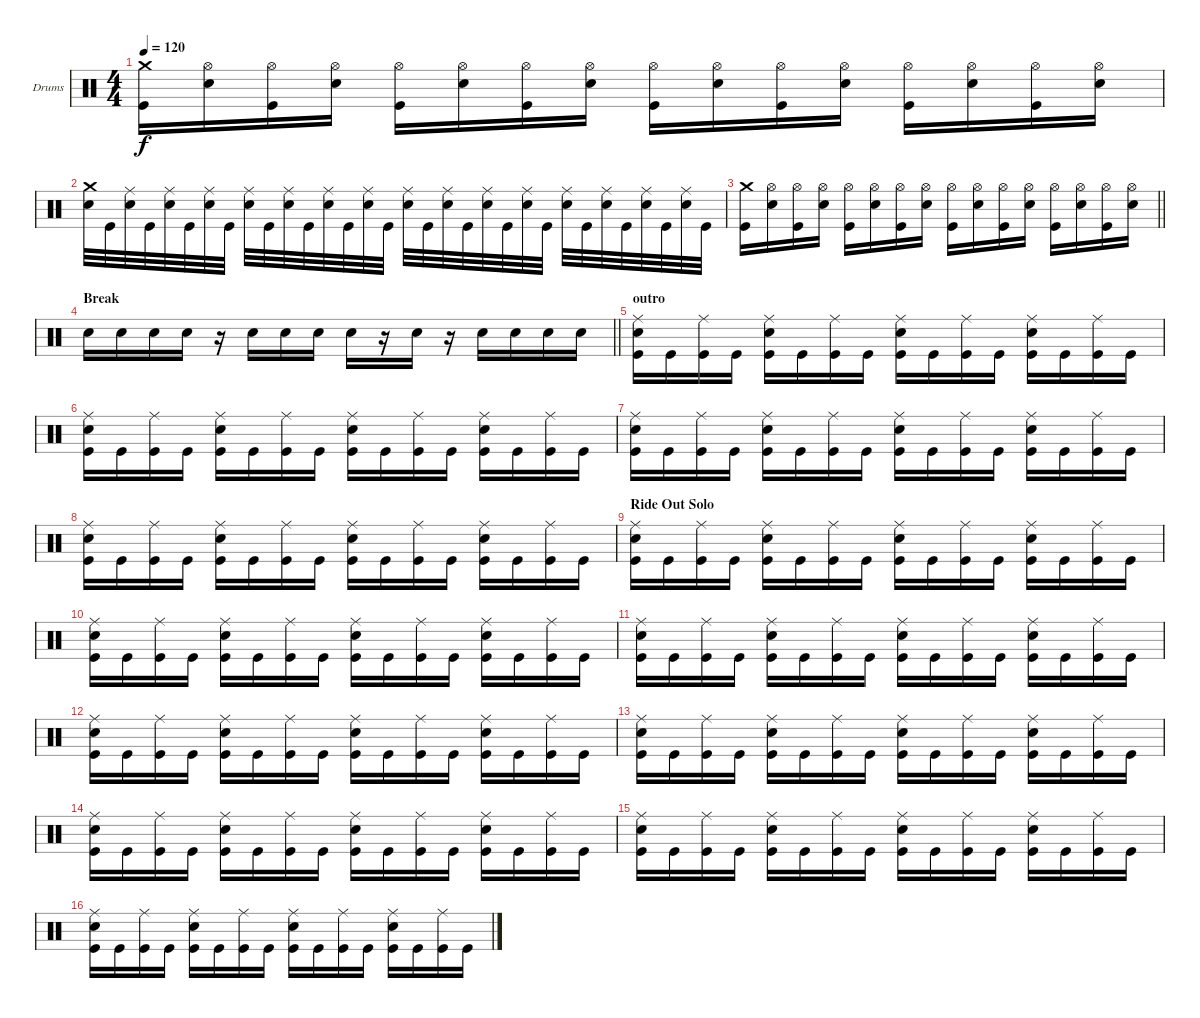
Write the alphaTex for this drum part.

\bracketExtendMode groupsimilarinstruments
\firstSystemTrackNameOrientation horizontal
\otherSystemsTrackNameOrientation horizontal
\track ("Drumkit" "Drums") {instrument percussion}
\staff {score}
\articulation defaults
\ts (4 4)
\tempo 120
\clef neutral
\ks c
("Crash medium (hit)" "Kick (hit)").16{dy f} ("Hi-Hat (open)" "Snare (hit) 2").16 ("Hi-Hat (open)" "Kick (hit)").16 ("Hi-Hat (open)" "Snare (hit) 2").16 ("Hi-Hat (open)" "Kick (hit)").16 ("Hi-Hat (open)" "Snare (hit) 2").16 ("Hi-Hat (open)" "Kick (hit)").16 ("Hi-Hat (open)" "Snare (hit) 2").16 ("Hi-Hat (open)" "Kick (hit)").16 ("Hi-Hat (open)" "Snare (hit) 2").16 ("Hi-Hat (open)" "Kick (hit)").16 ("Hi-Hat (open)" "Snare (hit) 2").16 ("Hi-Hat (open)" "Kick (hit)").16 ("Hi-Hat (open)" "Snare (hit) 2").16 ("Hi-Hat (open)" "Kick (hit)").16 ("Hi-Hat (open)" "Snare (hit) 2").16 |
("Crash medium (hit)" "Snare (hit) 2").32 "Kick (hit)".32 ("Ride (middle)" "Snare (hit) 2").32 "Kick (hit)".32 ("Ride (middle)" "Snare (hit) 2").32 "Kick (hit)".32 ("Ride (middle)" "Snare (hit) 2").32 "Kick (hit)".32 ("Ride (middle)" "Snare (hit) 2").32 "Kick (hit)".32 ("Ride (middle)" "Snare (hit) 2").32 "Kick (hit)".32 ("Ride (middle)" "Snare (hit) 2").32 "Kick (hit)".32 ("Ride (middle)" "Snare (hit) 2").32 "Kick (hit)".32 ("Ride (middle)" "Snare (hit) 2").32 "Kick (hit)".32 ("Ride (middle)" "Snare (hit) 2").32 "Kick (hit)".32 ("Ride (middle)" "Snare (hit) 2").32 "Kick (hit)".32 ("Ride (middle)" "Snare (hit) 2").32 "Kick (hit)".32 ("Ride (middle)" "Snare (hit) 2").32 "Kick (hit)".32 ("Ride (middle)" "Snare (hit) 2").32 "Kick (hit)".32 ("Ride (middle)" "Snare (hit) 2").32 "Kick (hit)".32 ("Ride (middle)" "Snare (hit) 2").32 "Kick (hit)".32 |
\barLineRight lightlight
("Crash medium (hit)" "Kick (hit)").16 ("Hi-Hat (open)" "Snare (hit) 2").16 ("Hi-Hat (open)" "Kick (hit)").16 ("Hi-Hat (open)" "Snare (hit) 2").16 ("Hi-Hat (open)" "Kick (hit)").16 ("Hi-Hat (open)" "Snare (hit) 2").16 ("Hi-Hat (open)" "Kick (hit)").16 ("Hi-Hat (open)" "Snare (hit) 2").16 ("Hi-Hat (open)" "Kick (hit)").16 ("Hi-Hat (open)" "Snare (hit) 2").16 ("Hi-Hat (open)" "Kick (hit)").16 ("Hi-Hat (open)" "Snare (hit) 2").16 ("Hi-Hat (open)" "Kick (hit)").16 ("Hi-Hat (open)" "Snare (hit) 2").16 ("Hi-Hat (open)" "Kick (hit)").16 ("Hi-Hat (open)" "Snare (hit) 2").16 |
\section ("" "Break")
\barLineRight lightlight "Snare (hit) 2".16 "Snare (hit) 2".16 "Snare (hit) 2".16 "Snare (hit) 2".16
r.16 "Snare (hit) 2".16 "Snare (hit) 2".16 "Snare (hit) 2".16 "Snare (hit) 2".16 r.16 "Snare (hit) 2".16 r.16 "Snare (hit) 2".16 "Snare (hit) 2".16 "Snare (hit) 2".16 "Snare (hit) 2".16 |
\section ("" "outro")
("Ride (middle)" "Snare (hit) 2" "Kick (hit)").16 "Kick (hit)".16 ("Ride (middle)" "Kick (hit)").16 "Kick (hit)".16 ("Ride (middle)" "Snare (hit) 2" "Kick (hit)").16 "Kick (hit)".16 ("Ride (middle)" "Kick (hit)").16 "Kick (hit)".16 ("Ride (middle)" "Snare (hit) 2" "Kick (hit)").16 "Kick (hit)".16 ("Ride (middle)" "Kick (hit)").16 "Kick (hit)".16 ("Ride (middle)" "Snare (hit) 2" "Kick (hit)").16 "Kick (hit)".16 ("Ride (middle)" "Kick (hit)").16 "Kick (hit)".16 |
("Ride (middle)" "Snare (hit) 2" "Kick (hit)").16 "Kick (hit)".16 ("Ride (middle)" "Kick (hit)").16 "Kick (hit)".16 ("Ride (middle)" "Snare (hit) 2" "Kick (hit)").16 "Kick (hit)".16 ("Ride (middle)" "Kick (hit)").16 "Kick (hit)".16 ("Ride (middle)" "Snare (hit) 2" "Kick (hit)").16 "Kick (hit)".16 ("Ride (middle)" "Kick (hit)").16 "Kick (hit)".16 ("Ride (middle)" "Snare (hit) 2" "Kick (hit)").16 "Kick (hit)".16 ("Ride (middle)" "Kick (hit)").16 "Kick (hit)".16 |
("Ride (middle)" "Snare (hit) 2" "Kick (hit)").16 "Kick (hit)".16 ("Ride (middle)" "Kick (hit)").16 "Kick (hit)".16 ("Ride (middle)" "Snare (hit) 2" "Kick (hit)").16 "Kick (hit)".16 ("Ride (middle)" "Kick (hit)").16 "Kick (hit)".16 ("Ride (middle)" "Snare (hit) 2" "Kick (hit)").16 "Kick (hit)".16 ("Ride (middle)" "Kick (hit)").16 "Kick (hit)".16 ("Ride (middle)" "Snare (hit) 2" "Kick (hit)").16 "Kick (hit)".16 ("Ride (middle)" "Kick (hit)").16 "Kick (hit)".16 |
("Ride (middle)" "Snare (hit) 2" "Kick (hit)").16 "Kick (hit)".16 ("Ride (middle)" "Kick (hit)").16 "Kick (hit)".16 ("Ride (middle)" "Snare (hit) 2" "Kick (hit)").16 "Kick (hit)".16 ("Ride (middle)" "Kick (hit)").16 "Kick (hit)".16 ("Ride (middle)" "Snare (hit) 2" "Kick (hit)").16 "Kick (hit)".16 ("Ride (middle)" "Kick (hit)").16 "Kick (hit)".16 ("Ride (middle)" "Snare (hit) 2" "Kick (hit)").16 "Kick (hit)".16 ("Ride (middle)" "Kick (hit)").16 "Kick (hit)".16 |
\section ("" "Ride Out Solo")
("Ride (middle)" "Snare (hit) 2" "Kick (hit)").16 "Kick (hit)".16 ("Ride (middle)" "Kick (hit)").16 "Kick (hit)".16 ("Ride (middle)" "Snare (hit) 2" "Kick (hit)").16 "Kick (hit)".16 ("Ride (middle)" "Kick (hit)").16 "Kick (hit)".16 ("Ride (middle)" "Snare (hit) 2" "Kick (hit)").16 "Kick (hit)".16 ("Ride (middle)" "Kick (hit)").16 "Kick (hit)".16 ("Ride (middle)" "Snare (hit) 2" "Kick (hit)").16 "Kick (hit)".16 ("Ride (middle)" "Kick (hit)").16 "Kick (hit)".16 |
("Ride (middle)" "Snare (hit) 2" "Kick (hit)").16 "Kick (hit)".16 ("Ride (middle)" "Kick (hit)").16 "Kick (hit)".16 ("Ride (middle)" "Snare (hit) 2" "Kick (hit)").16 "Kick (hit)".16 ("Ride (middle)" "Kick (hit)").16 "Kick (hit)".16 ("Ride (middle)" "Snare (hit) 2" "Kick (hit)").16 "Kick (hit)".16 ("Ride (middle)" "Kick (hit)").16 "Kick (hit)".16 ("Ride (middle)" "Snare (hit) 2" "Kick (hit)").16 "Kick (hit)".16 ("Ride (middle)" "Kick (hit)").16 "Kick (hit)".16 |
("Ride (middle)" "Snare (hit) 2" "Kick (hit)").16 "Kick (hit)".16 ("Ride (middle)" "Kick (hit)").16 "Kick (hit)".16 ("Ride (middle)" "Snare (hit) 2" "Kick (hit)").16 "Kick (hit)".16 ("Ride (middle)" "Kick (hit)").16 "Kick (hit)".16 ("Ride (middle)" "Snare (hit) 2" "Kick (hit)").16 "Kick (hit)".16 ("Ride (middle)" "Kick (hit)").16 "Kick (hit)".16 ("Ride (middle)" "Snare (hit) 2" "Kick (hit)").16 "Kick (hit)".16 ("Ride (middle)" "Kick (hit)").16 "Kick (hit)".16 |
("Ride (middle)" "Snare (hit) 2" "Kick (hit)").16 "Kick (hit)".16 ("Ride (middle)" "Kick (hit)").16 "Kick (hit)".16 ("Ride (middle)" "Snare (hit) 2" "Kick (hit)").16 "Kick (hit)".16 ("Ride (middle)" "Kick (hit)").16 "Kick (hit)".16 ("Ride (middle)" "Snare (hit) 2" "Kick (hit)").16 "Kick (hit)".16 ("Ride (middle)" "Kick (hit)").16 "Kick (hit)".16 ("Ride (middle)" "Snare (hit) 2" "Kick (hit)").16 "Kick (hit)".16 ("Ride (middle)" "Kick (hit)").16 "Kick (hit)".16 |
("Ride (middle)" "Snare (hit) 2" "Kick (hit)").16 "Kick (hit)".16 ("Ride (middle)" "Kick (hit)").16 "Kick (hit)".16 ("Ride (middle)" "Snare (hit) 2" "Kick (hit)").16 "Kick (hit)".16 ("Ride (middle)" "Kick (hit)").16 "Kick (hit)".16 ("Ride (middle)" "Snare (hit) 2" "Kick (hit)").16 "Kick (hit)".16 ("Ride (middle)" "Kick (hit)").16 "Kick (hit)".16 ("Ride (middle)" "Snare (hit) 2" "Kick (hit)").16 "Kick (hit)".16 ("Ride (middle)" "Kick (hit)").16 "Kick (hit)".16 |
("Ride (middle)" "Snare (hit) 2" "Kick (hit)").16 "Kick (hit)".16 ("Ride (middle)" "Kick (hit)").16 "Kick (hit)".16 ("Ride (middle)" "Snare (hit) 2" "Kick (hit)").16 "Kick (hit)".16 ("Ride (middle)" "Kick (hit)").16 "Kick (hit)".16 ("Ride (middle)" "Snare (hit) 2" "Kick (hit)").16 "Kick (hit)".16 ("Ride (middle)" "Kick (hit)").16 "Kick (hit)".16 ("Ride (middle)" "Snare (hit) 2" "Kick (hit)").16 "Kick (hit)".16 ("Ride (middle)" "Kick (hit)").16 "Kick (hit)".16 |
("Ride (middle)" "Snare (hit) 2" "Kick (hit)").16 "Kick (hit)".16 ("Ride (middle)" "Kick (hit)").16 "Kick (hit)".16 ("Ride (middle)" "Snare (hit) 2" "Kick (hit)").16 "Kick (hit)".16 ("Ride (middle)" "Kick (hit)").16 "Kick (hit)".16 ("Ride (middle)" "Snare (hit) 2" "Kick (hit)").16 "Kick (hit)".16 ("Ride (middle)" "Kick (hit)").16 "Kick (hit)".16 ("Ride (middle)" "Snare (hit) 2" "Kick (hit)").16 "Kick (hit)".16 ("Ride (middle)" "Kick (hit)").16 "Kick (hit)".16 |
("Ride (middle)" "Snare (hit) 2" "Kick (hit)").16 "Kick (hit)".16 ("Ride (middle)" "Kick (hit)").16 "Kick (hit)".16 ("Ride (middle)" "Snare (hit) 2" "Kick (hit)").16 "Kick (hit)".16 ("Ride (middle)" "Kick (hit)").16 "Kick (hit)".16 ("Ride (middle)" "Snare (hit) 2" "Kick (hit)").16 "Kick (hit)".16 ("Ride (middle)" "Kick (hit)").16 "Kick (hit)".16 ("Ride (middle)" "Snare (hit) 2" "Kick (hit)").16 "Kick (hit)".16 ("Ride (middle)" "Kick (hit)").16 "Kick (hit)".16
